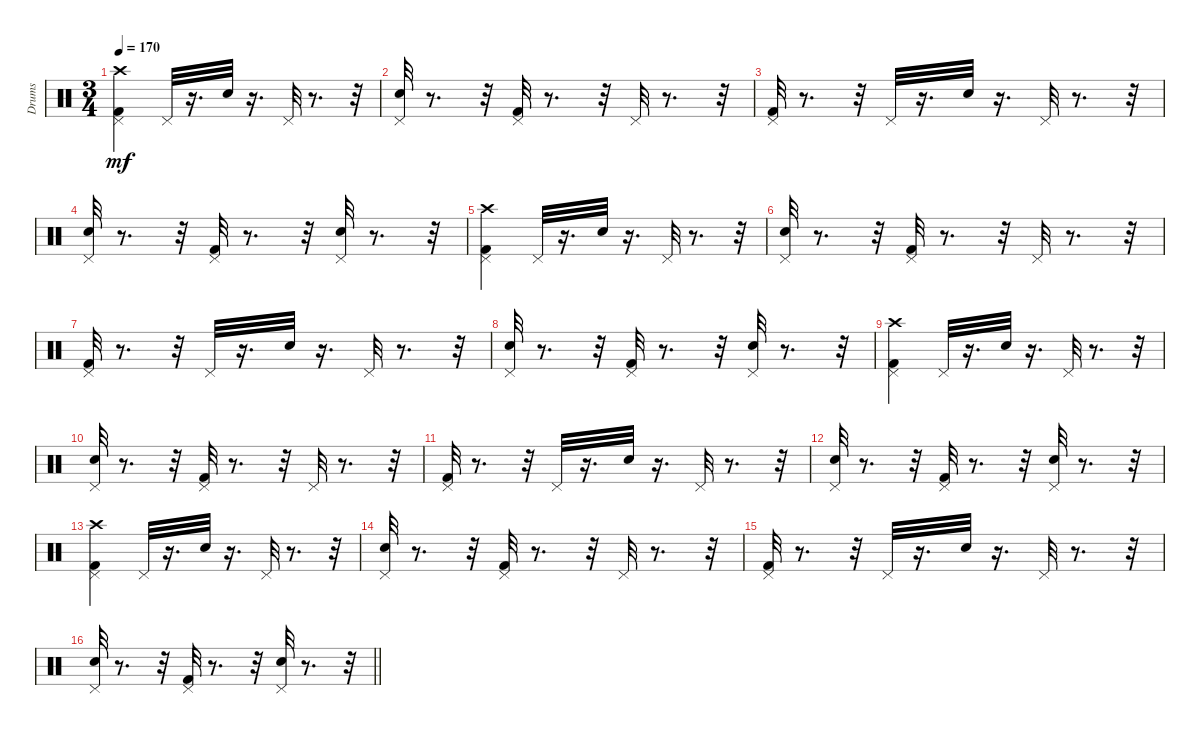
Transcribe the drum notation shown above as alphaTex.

\track ("Drums" "Drums") {instrument percussion}
\staff {score}
\articulation defaults
\ts (3 4)
\tempo 170
\clef neutral
\ks c
("Kick (hit) 2" "Pedal Hi-Hat (hit)" "Crash high (hit)").4{dy mf} "Pedal Hi-Hat (hit)".32 r.16{d} "Snare (hit) 2".32 r.16{d} "Pedal Hi-Hat (hit)".32 r.8{d} r.32 |
("Snare (hit) 2" "Pedal Hi-Hat (hit)").32 r.8{d} r.32 ("Kick (hit) 2" "Pedal Hi-Hat (hit)").32 r.8{d} r.32 "Pedal Hi-Hat (hit)".32 r.8{d} r.32 |
("Kick (hit) 2" "Pedal Hi-Hat (hit)").32 r.8{d} r.32 "Pedal Hi-Hat (hit)".32 r.16{d} "Snare (hit) 2".32 r.16{d} "Pedal Hi-Hat (hit)".32 r.8{d} r.32 |
("Snare (hit) 2" "Pedal Hi-Hat (hit)").32 r.8{d} r.32 ("Kick (hit) 2" "Pedal Hi-Hat (hit)").32 r.8{d} r.32 ("Snare (hit) 2" "Pedal Hi-Hat (hit)").32 r.8{d} r.32 |
("Kick (hit) 2" "Pedal Hi-Hat (hit)" "Crash high (hit)").4 "Pedal Hi-Hat (hit)".32 r.16{d} "Snare (hit) 2".32 r.16{d} "Pedal Hi-Hat (hit)".32 r.8{d} r.32 |
("Snare (hit) 2" "Pedal Hi-Hat (hit)").32 r.8{d} r.32 ("Kick (hit) 2" "Pedal Hi-Hat (hit)").32 r.8{d} r.32 "Pedal Hi-Hat (hit)".32 r.8{d} r.32 |
("Kick (hit) 2" "Pedal Hi-Hat (hit)").32 r.8{d} r.32 "Pedal Hi-Hat (hit)".32 r.16{d} "Snare (hit) 2".32 r.16{d} "Pedal Hi-Hat (hit)".32 r.8{d} r.32 |
("Snare (hit) 2" "Pedal Hi-Hat (hit)").32 r.8{d} r.32 ("Kick (hit) 2" "Pedal Hi-Hat (hit)").32 r.8{d} r.32 ("Snare (hit) 2" "Pedal Hi-Hat (hit)").32 r.8{d} r.32 |
("Kick (hit) 2" "Pedal Hi-Hat (hit)" "Crash high (hit)").4 "Pedal Hi-Hat (hit)".32 r.16{d} "Snare (hit) 2".32 r.16{d} "Pedal Hi-Hat (hit)".32 r.8{d} r.32 |
("Snare (hit) 2" "Pedal Hi-Hat (hit)").32 r.8{d} r.32 ("Kick (hit) 2" "Pedal Hi-Hat (hit)").32 r.8{d} r.32 "Pedal Hi-Hat (hit)".32 r.8{d} r.32 |
("Kick (hit) 2" "Pedal Hi-Hat (hit)").32 r.8{d} r.32 "Pedal Hi-Hat (hit)".32 r.16{d} "Snare (hit) 2".32 r.16{d} "Pedal Hi-Hat (hit)".32 r.8{d} r.32 |
("Snare (hit) 2" "Pedal Hi-Hat (hit)").32 r.8{d} r.32 ("Kick (hit) 2" "Pedal Hi-Hat (hit)").32 r.8{d} r.32 ("Snare (hit) 2" "Pedal Hi-Hat (hit)").32 r.8{d} r.32 |
("Kick (hit) 2" "Pedal Hi-Hat (hit)" "Crash high (hit)").4 "Pedal Hi-Hat (hit)".32 r.16{d} "Snare (hit) 2".32 r.16{d} "Pedal Hi-Hat (hit)".32 r.8{d} r.32 |
("Snare (hit) 2" "Pedal Hi-Hat (hit)").32 r.8{d} r.32 ("Kick (hit) 2" "Pedal Hi-Hat (hit)").32 r.8{d} r.32 "Pedal Hi-Hat (hit)".32 r.8{d} r.32 |
("Kick (hit) 2" "Pedal Hi-Hat (hit)").32 r.8{d} r.32 "Pedal Hi-Hat (hit)".32 r.16{d} "Snare (hit) 2".32 r.16{d} "Pedal Hi-Hat (hit)".32 r.8{d} r.32 |
\barLineRight lightlight
("Snare (hit) 2" "Pedal Hi-Hat (hit)").32 r.8{d} r.32 ("Kick (hit) 2" "Pedal Hi-Hat (hit)").32 r.8{d} r.32 ("Snare (hit) 2" "Pedal Hi-Hat (hit)").32 r.8{d} r.32
